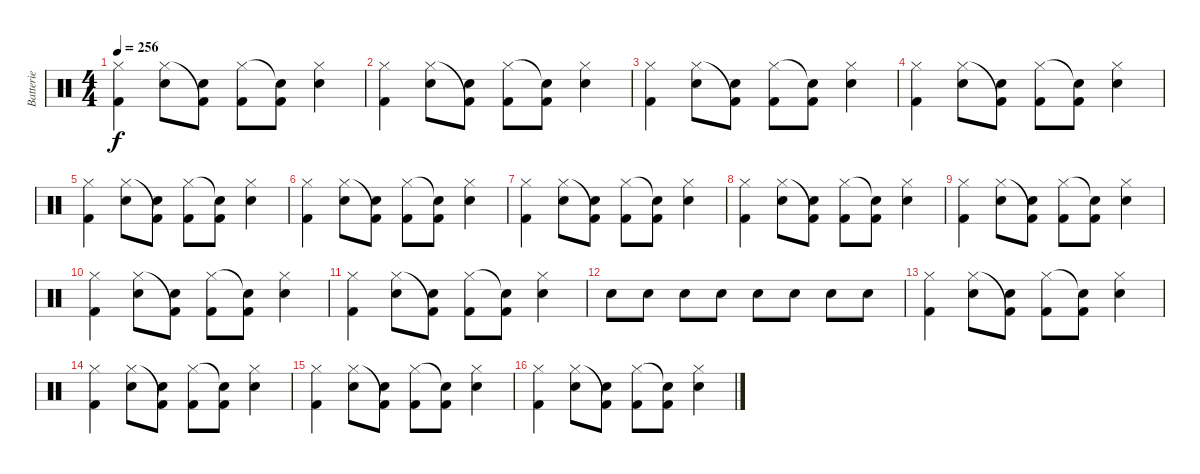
\track ("Batterie" "Batterie") {instrument percussion}
\staff {score}
\articulation defaults
\ts (4 4)
\tempo 256
\clef neutral
\ks c
("Hi-Hat (closed)" "Kick (hit) 2").4{dy f} ("Hi-Hat (closed)" "Snare (hit) 2").8 ("Kick (hit) 2"{t} "Snare (hit) 2").8 ("Hi-Hat (closed)" "Kick (hit) 2").8 ("Snare (hit)"{t} "Kick (hit) 2").8 ("Hi-Hat (closed)" "Snare (hit) 2").4 |
("Hi-Hat (closed)" "Kick (hit) 2").4 ("Hi-Hat (closed)" "Snare (hit) 2").8 ("Kick (hit) 2"{t} "Snare (hit) 2").8 ("Hi-Hat (closed)" "Kick (hit) 2").8 ("Snare (hit)"{t} "Kick (hit) 2").8 ("Hi-Hat (closed)" "Snare (hit) 2").4 |
("Hi-Hat (closed)" "Kick (hit) 2").4 ("Hi-Hat (closed)" "Snare (hit) 2").8 ("Kick (hit) 2"{t} "Snare (hit) 2").8 ("Hi-Hat (closed)" "Kick (hit) 2").8 ("Snare (hit)"{t} "Kick (hit) 2").8 ("Hi-Hat (closed)" "Snare (hit) 2").4 |
("Hi-Hat (closed)" "Kick (hit) 2").4 ("Hi-Hat (closed)" "Snare (hit) 2").8 ("Kick (hit) 2"{t} "Snare (hit) 2").8 ("Hi-Hat (closed)" "Kick (hit) 2").8 ("Snare (hit)"{t} "Kick (hit) 2").8 ("Hi-Hat (closed)" "Snare (hit) 2").4 |
("Hi-Hat (closed)" "Kick (hit) 2").4 ("Hi-Hat (closed)" "Snare (hit) 2").8 ("Kick (hit) 2"{t} "Snare (hit) 2").8 ("Hi-Hat (closed)" "Kick (hit) 2").8 ("Snare (hit)"{t} "Kick (hit) 2").8 ("Hi-Hat (closed)" "Snare (hit) 2").4 |
("Hi-Hat (closed)" "Kick (hit) 2").4 ("Hi-Hat (closed)" "Snare (hit) 2").8 ("Kick (hit) 2"{t} "Snare (hit) 2").8 ("Hi-Hat (closed)" "Kick (hit) 2").8 ("Snare (hit)"{t} "Kick (hit) 2").8 ("Hi-Hat (closed)" "Snare (hit) 2").4 |
("Hi-Hat (closed)" "Kick (hit) 2").4 ("Hi-Hat (closed)" "Snare (hit) 2").8 ("Kick (hit) 2"{t} "Snare (hit) 2").8 ("Hi-Hat (closed)" "Kick (hit) 2").8 ("Snare (hit)"{t} "Kick (hit) 2").8 ("Hi-Hat (closed)" "Snare (hit) 2").4 |
("Hi-Hat (closed)" "Kick (hit) 2").4 ("Hi-Hat (closed)" "Snare (hit) 2").8 ("Kick (hit) 2"{t} "Snare (hit) 2").8 ("Hi-Hat (closed)" "Kick (hit) 2").8 ("Snare (hit)"{t} "Kick (hit) 2").8 ("Hi-Hat (closed)" "Snare (hit) 2").4 |
("Hi-Hat (closed)" "Kick (hit) 2").4 ("Hi-Hat (closed)" "Snare (hit) 2").8 ("Kick (hit) 2"{t} "Snare (hit) 2").8 ("Hi-Hat (closed)" "Kick (hit) 2").8 ("Snare (hit)"{t} "Kick (hit) 2").8 ("Hi-Hat (closed)" "Snare (hit) 2").4 |
("Hi-Hat (closed)" "Kick (hit) 2").4 ("Hi-Hat (closed)" "Snare (hit) 2").8 ("Kick (hit) 2"{t} "Snare (hit) 2").8 ("Hi-Hat (closed)" "Kick (hit) 2").8 ("Snare (hit)"{t} "Kick (hit) 2").8 ("Hi-Hat (closed)" "Snare (hit) 2").4 |
("Hi-Hat (closed)" "Kick (hit) 2").4 ("Hi-Hat (closed)" "Snare (hit) 2").8 ("Kick (hit) 2"{t} "Snare (hit) 2").8 ("Hi-Hat (closed)" "Kick (hit) 2").8 ("Snare (hit)"{t} "Kick (hit) 2").8 ("Hi-Hat (closed)" "Snare (hit) 2").4 |
"Snare (hit) 2".8 "Snare (hit) 2".8 "Snare (hit) 2".8 "Snare (hit) 2".8 "Snare (hit) 2".8 "Snare (hit) 2".8 "Snare (hit) 2".8 "Snare (hit) 2".8 |
("Hi-Hat (closed)" "Kick (hit) 2").4 ("Hi-Hat (closed)" "Snare (hit) 2").8 ("Kick (hit) 2"{t} "Snare (hit) 2").8 ("Hi-Hat (closed)" "Kick (hit) 2").8 ("Snare (hit)"{t} "Kick (hit) 2").8 ("Hi-Hat (closed)" "Snare (hit) 2").4 |
("Hi-Hat (closed)" "Kick (hit) 2").4 ("Hi-Hat (closed)" "Snare (hit) 2").8 ("Kick (hit) 2"{t} "Snare (hit) 2").8 ("Hi-Hat (closed)" "Kick (hit) 2").8 ("Snare (hit)"{t} "Kick (hit) 2").8 ("Hi-Hat (closed)" "Snare (hit) 2").4 |
("Hi-Hat (closed)" "Kick (hit) 2").4 ("Hi-Hat (closed)" "Snare (hit) 2").8 ("Kick (hit) 2"{t} "Snare (hit) 2").8 ("Hi-Hat (closed)" "Kick (hit) 2").8 ("Snare (hit)"{t} "Kick (hit) 2").8 ("Hi-Hat (closed)" "Snare (hit) 2").4 |
("Hi-Hat (closed)" "Kick (hit) 2").4 ("Hi-Hat (closed)" "Snare (hit) 2").8 ("Kick (hit) 2"{t} "Snare (hit) 2").8 ("Hi-Hat (closed)" "Kick (hit) 2").8 ("Snare (hit)"{t} "Kick (hit) 2").8 ("Hi-Hat (closed)" "Snare (hit) 2").4
